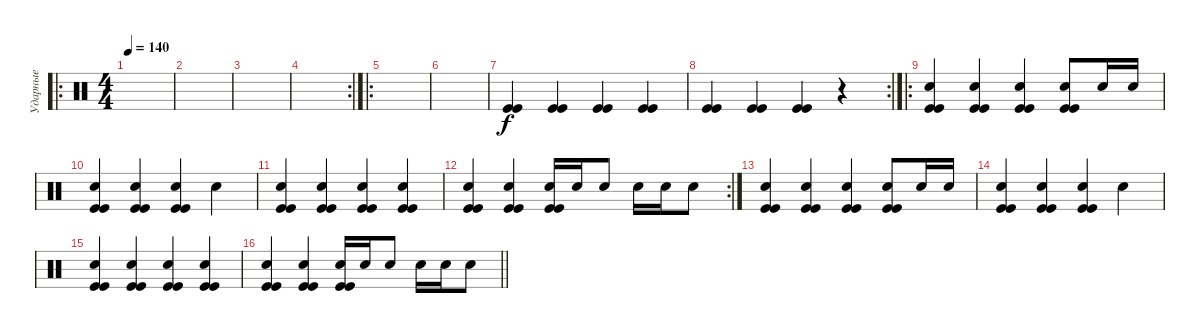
\track ("Ударные" "Ударные") {instrument percussion}
\staff {score}
\articulation defaults
\ro
\ts (4 4)
\tempo 140
\clef neutral
\ks c
|
|
|
\rc 2
|
\ro
|
|
("Kick (hit)" "Kick (hit)").4 ("Kick (hit)" "Kick (hit)").4 ("Kick (hit)" "Kick (hit)").4 ("Kick (hit)" "Kick (hit)").4 |
\rc 2
("Kick (hit)" "Kick (hit)").4 ("Kick (hit)" "Kick (hit)").4 ("Kick (hit)" "Kick (hit)").4 r.4 |
\ro
("Kick (hit)" "Electric Snare (hit)" "Kick (hit)").4 ("Kick (hit)" "Electric Snare (hit)" "Kick (hit)").4 ("Kick (hit)" "Electric Snare (hit)" "Kick (hit)").4 ("Kick (hit)" "Electric Snare (hit)" "Kick (hit)").8 "Electric Snare (hit)".16 "Electric Snare (hit)".16 |
("Kick (hit)" "Electric Snare (hit)" "Kick (hit)").4 ("Kick (hit)" "Electric Snare (hit)" "Kick (hit)").4 ("Kick (hit)" "Electric Snare (hit)" "Kick (hit)").4 "Electric Snare (hit)".4 |
("Kick (hit)" "Electric Snare (hit)" "Kick (hit)").4 ("Kick (hit)" "Electric Snare (hit)" "Kick (hit)").4 ("Kick (hit)" "Electric Snare (hit)" "Kick (hit)").4 ("Kick (hit)" "Electric Snare (hit)" "Kick (hit)").4 |
\rc 2
("Kick (hit)" "Electric Snare (hit)" "Kick (hit)").4 ("Kick (hit)" "Electric Snare (hit)" "Kick (hit)").4 ("Kick (hit)" "Electric Snare (hit)" "Kick (hit)").16 "Electric Snare (hit)".16 "Electric Snare (hit)".8 "Electric Snare (hit)".16 "Electric Snare (hit)".16 "Electric Snare (hit)".8 |
("Kick (hit)" "Electric Snare (hit)" "Kick (hit)").4 ("Kick (hit)" "Electric Snare (hit)" "Kick (hit)").4 ("Kick (hit)" "Electric Snare (hit)" "Kick (hit)").4 ("Kick (hit)" "Electric Snare (hit)" "Kick (hit)").8 "Electric Snare (hit)".16 "Electric Snare (hit)".16 |
("Kick (hit)" "Electric Snare (hit)" "Kick (hit)").4 ("Kick (hit)" "Electric Snare (hit)" "Kick (hit)").4 ("Kick (hit)" "Electric Snare (hit)" "Kick (hit)").4 "Electric Snare (hit)".4 |
("Kick (hit)" "Electric Snare (hit)" "Kick (hit)").4 ("Kick (hit)" "Electric Snare (hit)" "Kick (hit)").4 ("Kick (hit)" "Electric Snare (hit)" "Kick (hit)").4 ("Kick (hit)" "Electric Snare (hit)" "Kick (hit)").4 |
\barLineRight lightlight
("Kick (hit)" "Electric Snare (hit)" "Kick (hit)").4 ("Kick (hit)" "Electric Snare (hit)" "Kick (hit)").4 ("Kick (hit)" "Electric Snare (hit)" "Kick (hit)").16 "Electric Snare (hit)".16 "Electric Snare (hit)".8 "Electric Snare (hit)".16 "Electric Snare (hit)".16 "Electric Snare (hit)".8
